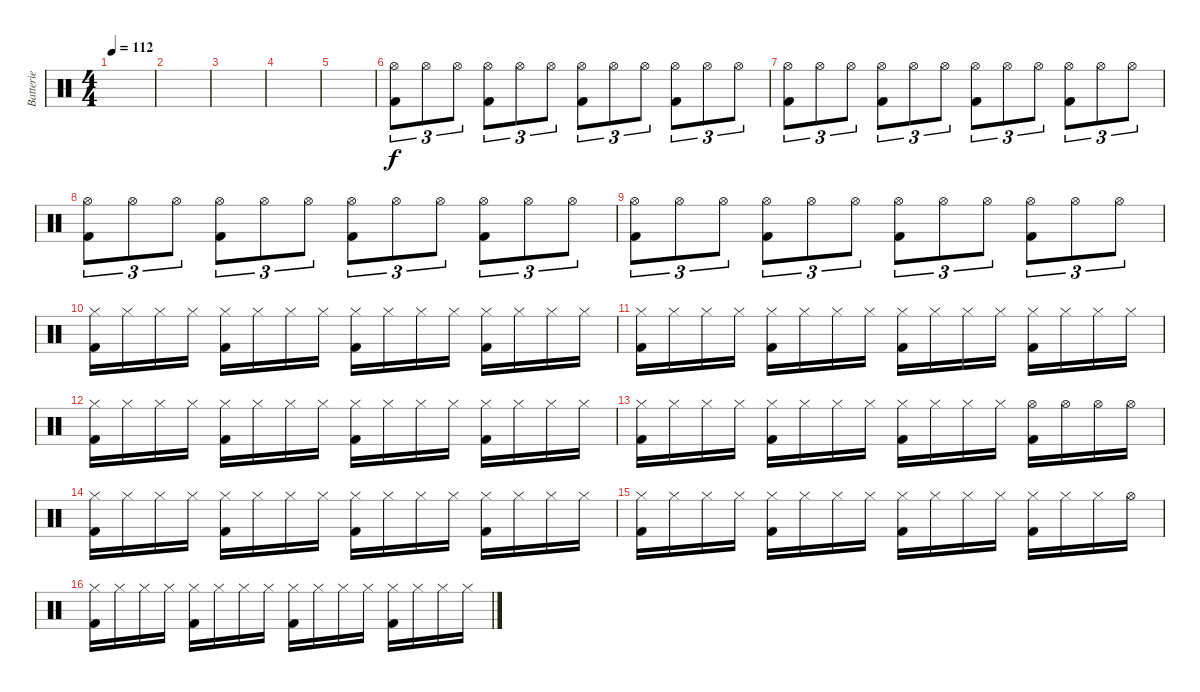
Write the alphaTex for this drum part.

\track ("Batterie" "Batterie") {instrument percussion}
\staff {score}
\articulation defaults
\ts (4 4)
\tempo 112
\clef neutral
\ks c
|
|
|
|
|
("Kick (hit) 2" "Hi-Hat (open)").8{tu (3 2)} "Hi-Hat (open)".8{tu (3 2)} "Hi-Hat (open)".8{tu (3 2)} ("Kick (hit) 2" "Hi-Hat (open)").8{tu (3 2)} "Hi-Hat (open)".8{tu (3 2)} "Hi-Hat (open)".8{tu (3 2)} ("Kick (hit) 2" "Hi-Hat (open)").8{tu (3 2)} "Hi-Hat (open)".8{tu (3 2)} "Hi-Hat (open)".8{tu (3 2)} ("Kick (hit) 2" "Hi-Hat (open)").8{tu (3 2)} "Hi-Hat (open)".8{tu (3 2)} "Hi-Hat (open)".8{tu (3 2)} |
("Kick (hit) 2" "Hi-Hat (open)").8{tu (3 2)} "Hi-Hat (open)".8{tu (3 2)} "Hi-Hat (open)".8{tu (3 2)} ("Kick (hit) 2" "Hi-Hat (open)").8{tu (3 2)} "Hi-Hat (open)".8{tu (3 2)} "Hi-Hat (open)".8{tu (3 2)} ("Kick (hit) 2" "Hi-Hat (open)").8{tu (3 2)} "Hi-Hat (open)".8{tu (3 2)} "Hi-Hat (open)".8{tu (3 2)} ("Kick (hit) 2" "Hi-Hat (open)").8{tu (3 2)} "Hi-Hat (open)".8{tu (3 2)} "Hi-Hat (open)".8{tu (3 2)} |
("Kick (hit) 2" "Hi-Hat (open)").8{tu (3 2)} "Hi-Hat (open)".8{tu (3 2)} "Hi-Hat (open)".8{tu (3 2)} ("Kick (hit) 2" "Hi-Hat (open)").8{tu (3 2)} "Hi-Hat (open)".8{tu (3 2)} "Hi-Hat (open)".8{tu (3 2)} ("Kick (hit) 2" "Hi-Hat (open)").8{tu (3 2)} "Hi-Hat (open)".8{tu (3 2)} "Hi-Hat (open)".8{tu (3 2)} ("Kick (hit) 2" "Hi-Hat (open)").8{tu (3 2)} "Hi-Hat (open)".8{tu (3 2)} "Hi-Hat (open)".8{tu (3 2)} |
("Kick (hit) 2" "Hi-Hat (open)").8{tu (3 2)} "Hi-Hat (open)".8{tu (3 2)} "Hi-Hat (open)".8{tu (3 2)} ("Kick (hit) 2" "Hi-Hat (open)").8{tu (3 2)} "Hi-Hat (open)".8{tu (3 2)} "Hi-Hat (open)".8{tu (3 2)} ("Kick (hit) 2" "Hi-Hat (open)").8{tu (3 2)} "Hi-Hat (open)".8{tu (3 2)} "Hi-Hat (open)".8{tu (3 2)} ("Kick (hit) 2" "Hi-Hat (open)").8{tu (3 2)} "Hi-Hat (open)".8{tu (3 2)} "Hi-Hat (open)".8{tu (3 2)} |
("Kick (hit) 2" "Hi-Hat (closed)").16 "Hi-Hat (closed)".16 "Hi-Hat (closed)".16 "Hi-Hat (closed)".16 ("Kick (hit) 2" "Hi-Hat (closed)").16 "Hi-Hat (closed)".16 "Hi-Hat (closed)".16 "Hi-Hat (closed)".16 ("Kick (hit) 2" "Hi-Hat (closed)").16 "Hi-Hat (closed)".16 "Hi-Hat (closed)".16 "Hi-Hat (closed)".16 ("Kick (hit) 2" "Hi-Hat (closed)").16 "Hi-Hat (closed)".16 "Hi-Hat (closed)".16 "Hi-Hat (closed)".16 |
("Kick (hit) 2" "Hi-Hat (closed)").16 "Hi-Hat (closed)".16 "Hi-Hat (closed)".16 "Hi-Hat (closed)".16 ("Kick (hit) 2" "Hi-Hat (closed)").16 "Hi-Hat (closed)".16 "Hi-Hat (closed)".16 "Hi-Hat (closed)".16 ("Kick (hit) 2" "Hi-Hat (closed)").16 "Hi-Hat (closed)".16 "Hi-Hat (closed)".16 "Hi-Hat (closed)".16 ("Kick (hit) 2" "Hi-Hat (closed)").16 "Hi-Hat (closed)".16 "Hi-Hat (closed)".16 "Hi-Hat (closed)".16 |
("Kick (hit) 2" "Hi-Hat (closed)").16 "Hi-Hat (closed)".16 "Hi-Hat (closed)".16 "Hi-Hat (closed)".16 ("Kick (hit) 2" "Hi-Hat (closed)").16 "Hi-Hat (closed)".16 "Hi-Hat (closed)".16 "Hi-Hat (closed)".16 ("Kick (hit) 2" "Hi-Hat (closed)").16 "Hi-Hat (closed)".16 "Hi-Hat (closed)".16 "Hi-Hat (closed)".16 ("Kick (hit) 2" "Hi-Hat (closed)").16 "Hi-Hat (closed)".16 "Hi-Hat (closed)".16 "Hi-Hat (closed)".16 |
("Kick (hit) 2" "Hi-Hat (closed)").16 "Hi-Hat (closed)".16 "Hi-Hat (closed)".16 "Hi-Hat (closed)".16 ("Kick (hit) 2" "Hi-Hat (closed)").16 "Hi-Hat (closed)".16 "Hi-Hat (closed)".16 "Hi-Hat (closed)".16 ("Kick (hit) 2" "Hi-Hat (closed)").16 "Hi-Hat (closed)".16 "Hi-Hat (closed)".16 "Hi-Hat (closed)".16 ("Kick (hit) 2" "Hi-Hat (open)").16 "Hi-Hat (open)".16 "Hi-Hat (open)".16 "Hi-Hat (open)".16 |
("Kick (hit) 2" "Hi-Hat (closed)").16 "Hi-Hat (closed)".16 "Hi-Hat (closed)".16 "Hi-Hat (closed)".16 ("Kick (hit) 2" "Hi-Hat (closed)").16 "Hi-Hat (closed)".16 "Hi-Hat (closed)".16 "Hi-Hat (closed)".16 ("Kick (hit) 2" "Hi-Hat (closed)").16 "Hi-Hat (closed)".16 "Hi-Hat (closed)".16 "Hi-Hat (closed)".16 ("Kick (hit) 2" "Hi-Hat (closed)").16 "Hi-Hat (closed)".16 "Hi-Hat (closed)".16 "Hi-Hat (closed)".16 |
("Kick (hit) 2" "Hi-Hat (closed)").16 "Hi-Hat (closed)".16 "Hi-Hat (closed)".16 "Hi-Hat (closed)".16 ("Kick (hit) 2" "Hi-Hat (closed)").16 "Hi-Hat (closed)".16 "Hi-Hat (closed)".16 "Hi-Hat (closed)".16 ("Kick (hit) 2" "Hi-Hat (closed)").16 "Hi-Hat (closed)".16 "Hi-Hat (closed)".16 "Hi-Hat (closed)".16 ("Kick (hit) 2" "Hi-Hat (closed)").16 "Hi-Hat (closed)".16 "Hi-Hat (closed)".16 "Hi-Hat (open)".16 |
("Kick (hit) 2" "Hi-Hat (closed)").16 "Hi-Hat (closed)".16 "Hi-Hat (closed)".16 "Hi-Hat (closed)".16 ("Kick (hit) 2" "Hi-Hat (closed)").16 "Hi-Hat (closed)".16 "Hi-Hat (closed)".16 "Hi-Hat (closed)".16 ("Kick (hit) 2" "Hi-Hat (closed)").16 "Hi-Hat (closed)".16 "Hi-Hat (closed)".16 "Hi-Hat (closed)".16 ("Kick (hit) 2" "Hi-Hat (closed)").16 "Hi-Hat (closed)".16 "Hi-Hat (closed)".16 "Hi-Hat (closed)".16
